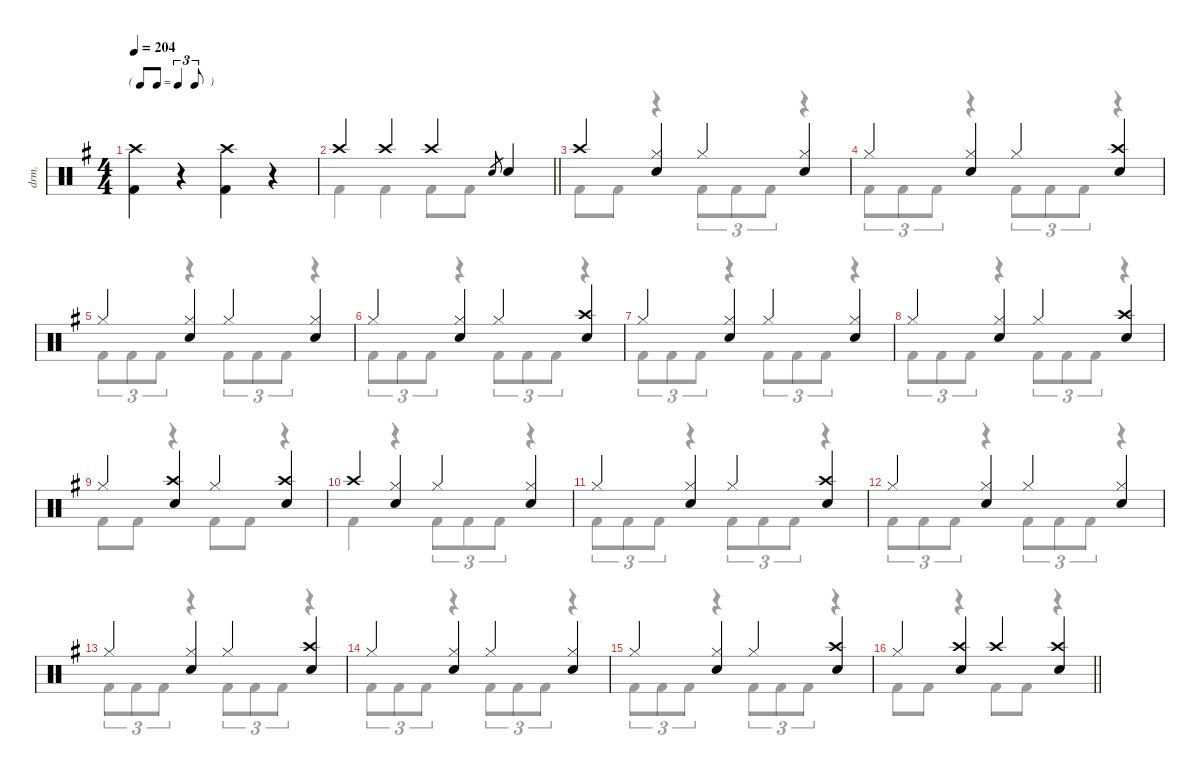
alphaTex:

\defaultSystemsLayout 4
\hideDynamics
\bracketExtendMode nobrackets
\otherSystemsTrackNameOrientation horizontal
\track ("Lars Ulrich" "drm.") {defaultSystemsLayout 8 instrument percussion}
\staff {score}
\articulation defaults
\voice
\ts (4 4)
\tf triplet8th
\tempo 204
\clef neutral
\ks eminor
("Crash high (hit)"{acc forcenatural} "Kick (hit) 2"{acc forcenatural}).4{dy f beam Down} r.4{beam Down} ("Crash high (hit)"{acc forcenatural} "Kick (hit) 2"{acc forcenatural}).4{beam Down} r.4{beam Down} |
\barLineRight lightlight "Crash high (hit)"{acc forcenatural}.4{beam Up} "Crash high (hit)"{acc forcenatural}.4{beam Up} "Crash high (hit)"{acc forcenatural}.4{beam Up} "Snare (hit) 2"{acc forcenatural}.8{gr dy mf beam Up} "Snare (hit) 2"{acc forcenatural}.4{dy f beam Up}
|
"Crash high (hit)"{acc forcenatural}.4{beam Up} ("Hi-Hat (closed)"{acc forcenatural} "Snare (hit) 2"{acc forcenatural}).4{beam Up} "Hi-Hat (closed)"{acc forcenatural}.4{beam Up} ("Hi-Hat (closed)"{acc forcenatural} "Snare (hit) 2"{acc forcenatural}).4{beam Up} |
"Hi-Hat (closed)"{acc forcenatural}.4{beam Up} ("Hi-Hat (closed)"{acc forcenatural} "Snare (hit) 2"{acc forcenatural}).4{beam Up} "Hi-Hat (closed)"{acc forcenatural}.4{beam Up} ("Crash high (hit)"{acc forcenatural} "Snare (hit) 2"{acc forcenatural}).4{beam Up} |
"Hi-Hat (closed)"{acc forcenatural}.4{beam Up} ("Hi-Hat (closed)"{acc forcenatural} "Snare (hit) 2"{acc forcenatural}).4{beam Up} "Hi-Hat (closed)"{acc forcenatural}.4{beam Up} ("Hi-Hat (closed)"{acc forcenatural} "Snare (hit) 2"{acc forcenatural}).4{beam Up} |
"Hi-Hat (closed)"{acc forcenatural}.4{beam Up} ("Hi-Hat (closed)"{acc forcenatural} "Snare (hit) 2"{acc forcenatural}).4{beam Up} "Hi-Hat (closed)"{acc forcenatural}.4{beam Up} ("Crash high (hit)"{acc forcenatural} "Snare (hit) 2"{acc forcenatural}).4{beam Up} |
"Hi-Hat (closed)"{acc forcenatural}.4{beam Up} ("Hi-Hat (closed)"{acc forcenatural} "Snare (hit) 2"{acc forcenatural}).4{beam Up} "Hi-Hat (closed)"{acc forcenatural}.4{beam Up} ("Hi-Hat (closed)"{acc forcenatural} "Snare (hit) 2"{acc forcenatural}).4{beam Up} |
"Hi-Hat (closed)"{acc forcenatural}.4{beam Up} ("Hi-Hat (closed)"{acc forcenatural} "Snare (hit) 2"{acc forcenatural}).4{beam Up} "Hi-Hat (closed)"{acc forcenatural}.4{beam Up} ("Crash high (hit)"{acc forcenatural} "Snare (hit) 2"{acc forcenatural}).4{beam Up} |
"Hi-Hat (closed)"{acc forcenatural}.4{beam Up} ("Crash high (hit)"{acc forcenatural} "Snare (hit) 2"{acc forcenatural}).4{beam Up} "Hi-Hat (closed)"{acc forcenatural}.4{beam Up} ("Crash high (hit)"{acc forcenatural} "Snare (hit) 2"{acc forcenatural}).4{beam Up} |
"Crash high (hit)"{acc forcenatural}.4{beam Up} ("Hi-Hat (closed)"{acc forcenatural} "Snare (hit) 2"{acc forcenatural}).4{beam Up} "Hi-Hat (closed)"{acc forcenatural}.4{beam Up} ("Hi-Hat (closed)"{acc forcenatural} "Snare (hit) 2"{acc forcenatural}).4{beam Up} |
"Hi-Hat (closed)"{acc forcenatural}.4{beam Up} ("Hi-Hat (closed)"{acc forcenatural} "Snare (hit) 2"{acc forcenatural}).4{beam Up} "Hi-Hat (closed)"{acc forcenatural}.4{beam Up} ("Crash high (hit)"{acc forcenatural} "Snare (hit) 2"{acc forcenatural}).4{beam Up} |
"Hi-Hat (closed)"{acc forcenatural}.4{beam Up} ("Hi-Hat (closed)"{acc forcenatural} "Snare (hit) 2"{acc forcenatural}).4{beam Up} "Hi-Hat (closed)"{acc forcenatural}.4{beam Up} ("Hi-Hat (closed)"{acc forcenatural} "Snare (hit) 2"{acc forcenatural}).4{beam Up} |
"Hi-Hat (closed)"{acc forcenatural}.4{beam Up} ("Hi-Hat (closed)"{acc forcenatural} "Snare (hit) 2"{acc forcenatural}).4{beam Up} "Hi-Hat (closed)"{acc forcenatural}.4{beam Up} ("Crash high (hit)"{acc forcenatural} "Snare (hit) 2"{acc forcenatural}).4{beam Up} |
"Hi-Hat (closed)"{acc forcenatural}.4{beam Up} ("Hi-Hat (closed)"{acc forcenatural} "Snare (hit) 2"{acc forcenatural}).4{beam Up} "Hi-Hat (closed)"{acc forcenatural}.4{beam Up} ("Hi-Hat (closed)"{acc forcenatural} "Snare (hit) 2"{acc forcenatural}).4{beam Up} |
"Hi-Hat (closed)"{acc forcenatural}.4{beam Up} ("Hi-Hat (closed)"{acc forcenatural} "Snare (hit) 2"{acc forcenatural}).4{beam Up} "Hi-Hat (closed)"{acc forcenatural}.4{beam Up} ("Crash high (hit)"{acc forcenatural} "Snare (hit) 2"{acc forcenatural}).4{beam Up} |
\barLineRight lightlight "Hi-Hat (closed)"{acc forcenatural}.4{beam Up}
("Crash high (hit)"{acc forcenatural} "Snare (hit) 2"{acc forcenatural}).4{beam Up} "Crash high (hit)"{acc forcenatural}.4{beam Up} ("Crash high (hit)"{acc forcenatural} "Snare (hit) 2"{acc forcenatural}).4{beam Up}
\voice
\clef neutral
\ottava regular
\simile none
\ks eminor
|
\barLineRight lightlight "Kick (hit) 2"{acc forcenatural}.4{beam Down} "Kick (hit) 2"{acc forcenatural}.4{beam Down} "Kick (hit) 2"{acc forcenatural}.8{beam Down} "Kick (hit) 2"{acc forcenatural}.8{beam Down}
|
"Kick (hit) 2"{acc forcenatural}.8{beam Down} "Kick (hit) 2"{acc forcenatural}.8{beam Down} r.4{beam Down} "Kick (hit) 2"{acc forcenatural}.8{tu (3 2) beam Down} "Kick (hit) 2"{acc forcenatural}.8{tu (3 2) beam Down} "Kick (hit) 2"{acc forcenatural}.8{tu (3 2) beam Down} r.4{beam Down} |
"Kick (hit) 2"{acc forcenatural}.8{tu (3 2) beam Down} "Kick (hit) 2"{acc forcenatural}.8{tu (3 2) beam Down} "Kick (hit) 2"{acc forcenatural}.8{tu (3 2) beam Down} r.4{beam Down} "Kick (hit) 2"{acc forcenatural}.8{tu (3 2) beam Down} "Kick (hit) 2"{acc forcenatural}.8{tu (3 2) beam Down} "Kick (hit) 2"{acc forcenatural}.8{tu (3 2) beam Down} r.4{beam Down} |
"Kick (hit) 2"{acc forcenatural}.8{tu (3 2) beam Down} "Kick (hit) 2"{acc forcenatural}.8{tu (3 2) beam Down} "Kick (hit) 2"{acc forcenatural}.8{tu (3 2) beam Down} r.4{beam Down} "Kick (hit) 2"{acc forcenatural}.8{tu (3 2) beam Down} "Kick (hit) 2"{acc forcenatural}.8{tu (3 2) beam Down} "Kick (hit) 2"{acc forcenatural}.8{tu (3 2) beam Down} r.4{beam Down} |
"Kick (hit) 2"{acc forcenatural}.8{tu (3 2) beam Down} "Kick (hit) 2"{acc forcenatural}.8{tu (3 2) beam Down} "Kick (hit) 2"{acc forcenatural}.8{tu (3 2) beam Down} r.4{beam Down} "Kick (hit) 2"{acc forcenatural}.8{tu (3 2) beam Down} "Kick (hit) 2"{acc forcenatural}.8{tu (3 2) beam Down} "Kick (hit) 2"{acc forcenatural}.8{tu (3 2) beam Down} r.4{beam Down} |
"Kick (hit) 2"{acc forcenatural}.8{tu (3 2) beam Down} "Kick (hit) 2"{acc forcenatural}.8{tu (3 2) beam Down} "Kick (hit) 2"{acc forcenatural}.8{tu (3 2) beam Down} r.4{beam Down} "Kick (hit) 2"{acc forcenatural}.8{tu (3 2) beam Down} "Kick (hit) 2"{acc forcenatural}.8{tu (3 2) beam Down} "Kick (hit) 2"{acc forcenatural}.8{tu (3 2) beam Down} r.4{beam Down} |
"Kick (hit) 2"{acc forcenatural}.8{tu (3 2) beam Down} "Kick (hit) 2"{acc forcenatural}.8{tu (3 2) beam Down} "Kick (hit) 2"{acc forcenatural}.8{tu (3 2) beam Down} r.4{beam Down} "Kick (hit) 2"{acc forcenatural}.8{tu (3 2) beam Down} "Kick (hit) 2"{acc forcenatural}.8{tu (3 2) beam Down} "Kick (hit) 2"{acc forcenatural}.8{tu (3 2) beam Down} r.4{beam Down} |
"Kick (hit) 2"{acc forcenatural}.8{beam Down} "Kick (hit) 2"{acc forcenatural}.8{beam Down} r.4{beam Down} "Kick (hit) 2"{acc forcenatural}.8{beam Down} "Kick (hit) 2"{acc forcenatural}.8{beam Down} r.4{beam Down} |
"Kick (hit) 2"{acc forcenatural}.4{beam Down} r.4{beam Down} "Kick (hit) 2"{acc forcenatural}.8{tu (3 2) beam Down} "Kick (hit) 2"{acc forcenatural}.8{tu (3 2) beam Down} "Kick (hit) 2"{acc forcenatural}.8{tu (3 2) beam Down} r.4{beam Down} |
"Kick (hit) 2"{acc forcenatural}.8{tu (3 2) beam Down} "Kick (hit) 2"{acc forcenatural}.8{tu (3 2) beam Down} "Kick (hit) 2"{acc forcenatural}.8{tu (3 2) beam Down} r.4{beam Down} "Kick (hit) 2"{acc forcenatural}.8{tu (3 2) beam Down} "Kick (hit) 2"{acc forcenatural}.8{tu (3 2) beam Down} "Kick (hit) 2"{acc forcenatural}.8{tu (3 2) beam Down} r.4{beam Down} |
"Kick (hit) 2"{acc forcenatural}.8{tu (3 2) beam Down} "Kick (hit) 2"{acc forcenatural}.8{tu (3 2) beam Down} "Kick (hit) 2"{acc forcenatural}.8{tu (3 2) beam Down} r.4{beam Down} "Kick (hit) 2"{acc forcenatural}.8{tu (3 2) beam Down} "Kick (hit) 2"{acc forcenatural}.8{tu (3 2) beam Down} "Kick (hit) 2"{acc forcenatural}.8{tu (3 2) beam Down} r.4{beam Down} |
"Kick (hit) 2"{acc forcenatural}.8{tu (3 2) beam Down} "Kick (hit) 2"{acc forcenatural}.8{tu (3 2) beam Down} "Kick (hit) 2"{acc forcenatural}.8{tu (3 2) beam Down} r.4{beam Down} "Kick (hit) 2"{acc forcenatural}.8{tu (3 2) beam Down} "Kick (hit) 2"{acc forcenatural}.8{tu (3 2) beam Down} "Kick (hit) 2"{acc forcenatural}.8{tu (3 2) beam Down} r.4{beam Down} |
"Kick (hit) 2"{acc forcenatural}.8{tu (3 2) beam Down} "Kick (hit) 2"{acc forcenatural}.8{tu (3 2) beam Down} "Kick (hit) 2"{acc forcenatural}.8{tu (3 2) beam Down} r.4{beam Down} "Kick (hit) 2"{acc forcenatural}.8{tu (3 2) beam Down} "Kick (hit) 2"{acc forcenatural}.8{tu (3 2) beam Down} "Kick (hit) 2"{acc forcenatural}.8{tu (3 2) beam Down} r.4{beam Down} |
"Kick (hit) 2"{acc forcenatural}.8{tu (3 2) beam Down} "Kick (hit) 2"{acc forcenatural}.8{tu (3 2) beam Down} "Kick (hit) 2"{acc forcenatural}.8{tu (3 2) beam Down} r.4{beam Down} "Kick (hit) 2"{acc forcenatural}.8{tu (3 2) beam Down} "Kick (hit) 2"{acc forcenatural}.8{tu (3 2) beam Down} "Kick (hit) 2"{acc forcenatural}.8{tu (3 2) beam Down} r.4{beam Down} |
\barLineRight lightlight "Kick (hit) 2"{acc forcenatural}.8{beam Down} "Kick (hit) 2"{acc forcenatural}.8{beam Down}
r.4{beam Down} "Kick (hit) 2"{acc forcenatural}.8{beam Down} "Kick (hit) 2"{acc forcenatural}.8{beam Down} r.4{beam Down}
